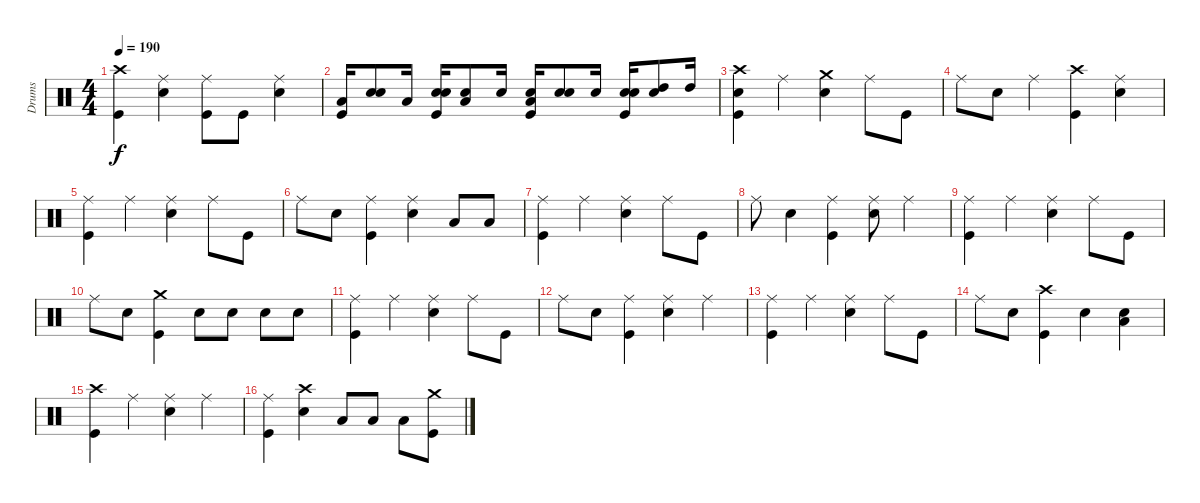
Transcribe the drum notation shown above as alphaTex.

\track ("Drums" "Drums") {instrument percussion}
\staff {score}
\articulation defaults
\ts (4 4)
\tempo 190
\clef neutral
\ks c
("Crash high (hit)" "Kick (hit)").4{dy f} ("Electric Snare (hit)" "Ride (middle)").4 ("Kick (hit)" "Ride (middle)").8 "Kick (hit)".8 ("Electric Snare (hit)" "Ride (middle)").4 |
("Kick (hit)" "Low Floor Tom (hit)").16 ("Snare (hit)" "Electric Snare (hit)").8 "Low Floor Tom (hit)".16 ("Snare (hit)" "Kick (hit)" "Electric Snare (hit)").16 ("Snare (hit)" "Low Floor Tom (hit)").8 "Electric Snare (hit)".16 ("Snare (hit)" "Kick (hit)" "Low Tom (hit)").16 ("Snare (hit)" "Electric Snare (hit)").8 "Electric Snare (hit)".16 ("Snare (hit)" "Kick (hit)" "Electric Snare (hit)").16 ("Snare (hit)" "High Tom (hit)").8 "High Tom (hit)".16 |
("Snare (hit)" "Kick (hit)" "Crash high (hit)").4 "Ride (middle)".4 ("Electric Snare (hit)" "Crash medium (hit)").4 "Ride (middle)".8 "Kick (hit)".8 |
"Ride (middle)".8 "Electric Snare (hit)".8 "Ride (middle)".4 ("Kick (hit)" "Crash high (hit)").4 ("Electric Snare (hit)" "Ride (middle)").4 |
("Kick (hit)" "Ride (middle)").4 "Ride (middle)".4 ("Electric Snare (hit)" "Ride (middle)").4 "Ride (middle)".8 "Kick (hit)".8 |
"Ride (middle)".8 "Electric Snare (hit)".8 ("Kick (hit)" "Ride (middle)").4 ("Electric Snare (hit)" "Ride (middle)").4 "Low Floor Tom (hit)".8 "Low Tom (hit)".8 |
("Kick (hit)" "Ride (middle)").4 "Ride (middle)".4 ("Electric Snare (hit)" "Ride (middle)").4 "Ride (middle)".8 "Kick (hit)".8 |
"Ride (middle)".8 "Electric Snare (hit)".4 ("Kick (hit)" "Ride (middle)").4 ("Electric Snare (hit)" "Ride (middle)").8 "Ride (middle)".4 |
("Kick (hit)" "Ride (middle)").4 "Ride (middle)".4 ("Electric Snare (hit)" "Ride (middle)").4 "Ride (middle)".8 "Kick (hit)".8 |
"Ride (middle)".8 "Electric Snare (hit)".8 ("Crash medium (hit)" "Kick (hit)").4 "Electric Snare (hit)".8 "Electric Snare (hit)".8 "Electric Snare (hit)".8 "Electric Snare (hit)".8 |
("Kick (hit)" "Ride (middle)").4 "Ride (middle)".4 ("Electric Snare (hit)" "Ride (middle)").4 "Ride (middle)".8 "Kick (hit)".8 |
"Ride (middle)".8 "Electric Snare (hit)".8 ("Kick (hit)" "Ride (middle)").4 ("Electric Snare (hit)" "Ride (middle)").4 "Ride (middle)".4 |
("Kick (hit)" "Ride (middle)").4 "Ride (middle)".4 ("Electric Snare (hit)" "Ride (middle)").4 "Ride (middle)".8 "Kick (hit)".8 |
"Ride (middle)".8 "Electric Snare (hit)".8 ("Crash high (hit)" "Kick (hit)").4 "Electric Snare (hit)".4 ("Electric Snare (hit)" "Low Floor Tom (hit)").4 |
("Kick (hit)" "Crash high (hit)").4 "Ride (middle)".4 ("Electric Snare (hit)" "Ride (middle)").4 "Ride (middle)".4 |
("Kick (hit)" "Ride (middle)").4 ("Electric Snare (hit)" "Crash high (hit)").4 "Low Tom (hit)".8 "Low Tom (hit)".8 "Low Tom (hit)".8 ("Kick (hit)" "Crash medium (hit)").8
